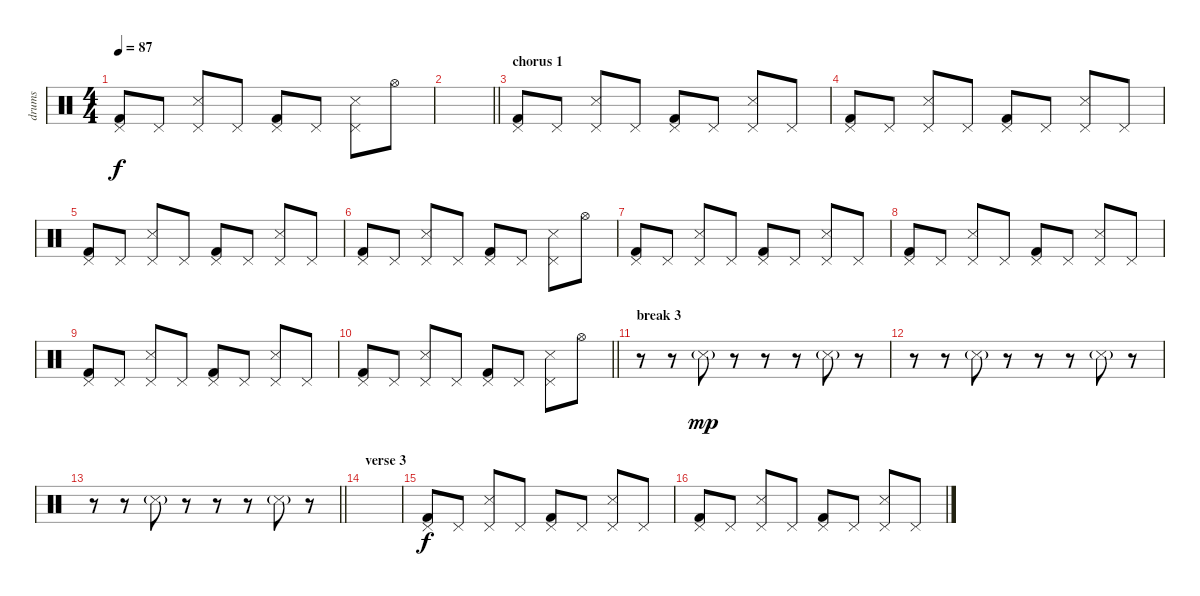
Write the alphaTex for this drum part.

\track ("drums" "drums") {instrument percussion}
\staff {score}
\articulation defaults
\ts (4 4)
\tempo 87
\clef neutral
\ks c
("Kick (hit) 2" "Pedal Hi-Hat (hit)").8{dy f} "Pedal Hi-Hat (hit)".8 ("Snare (side stick) 3" "Pedal Hi-Hat (hit)").8 "Pedal Hi-Hat (hit)".8 ("Kick (hit) 2" "Pedal Hi-Hat (hit)").8 "Pedal Hi-Hat (hit)".8 ("Snare (side stick) 3" "Pedal Hi-Hat (hit)").8 "Hi-Hat (open)".8 |
\barLineRight lightlight
|
\section ("" "chorus 1")
("Kick (hit) 2" "Pedal Hi-Hat (hit)").8 "Pedal Hi-Hat (hit)".8 ("Snare (side stick) 3" "Pedal Hi-Hat (hit)").8 "Pedal Hi-Hat (hit)".8 ("Kick (hit) 2" "Pedal Hi-Hat (hit)").8 "Pedal Hi-Hat (hit)".8 ("Snare (side stick) 3" "Pedal Hi-Hat (hit)").8 "Pedal Hi-Hat (hit)".8 |
("Kick (hit) 2" "Pedal Hi-Hat (hit)").8 "Pedal Hi-Hat (hit)".8 ("Snare (side stick) 3" "Pedal Hi-Hat (hit)").8 "Pedal Hi-Hat (hit)".8 ("Kick (hit) 2" "Pedal Hi-Hat (hit)").8 "Pedal Hi-Hat (hit)".8 ("Snare (side stick) 3" "Pedal Hi-Hat (hit)").8 "Pedal Hi-Hat (hit)".8 |
("Kick (hit) 2" "Pedal Hi-Hat (hit)").8 "Pedal Hi-Hat (hit)".8 ("Snare (side stick) 3" "Pedal Hi-Hat (hit)").8 "Pedal Hi-Hat (hit)".8 ("Kick (hit) 2" "Pedal Hi-Hat (hit)").8 "Pedal Hi-Hat (hit)".8 ("Snare (side stick) 3" "Pedal Hi-Hat (hit)").8 "Pedal Hi-Hat (hit)".8 |
("Kick (hit) 2" "Pedal Hi-Hat (hit)").8 "Pedal Hi-Hat (hit)".8 ("Snare (side stick) 3" "Pedal Hi-Hat (hit)").8 "Pedal Hi-Hat (hit)".8 ("Kick (hit) 2" "Pedal Hi-Hat (hit)").8 "Pedal Hi-Hat (hit)".8 ("Snare (side stick) 3" "Pedal Hi-Hat (hit)").8 "Hi-Hat (open)".8 |
("Kick (hit) 2" "Pedal Hi-Hat (hit)").8 "Pedal Hi-Hat (hit)".8 ("Snare (side stick) 3" "Pedal Hi-Hat (hit)").8 "Pedal Hi-Hat (hit)".8 ("Kick (hit) 2" "Pedal Hi-Hat (hit)").8 "Pedal Hi-Hat (hit)".8 ("Snare (side stick) 3" "Pedal Hi-Hat (hit)").8 "Pedal Hi-Hat (hit)".8 |
("Kick (hit) 2" "Pedal Hi-Hat (hit)").8 "Pedal Hi-Hat (hit)".8 ("Snare (side stick) 3" "Pedal Hi-Hat (hit)").8 "Pedal Hi-Hat (hit)".8 ("Kick (hit) 2" "Pedal Hi-Hat (hit)").8 "Pedal Hi-Hat (hit)".8 ("Snare (side stick) 3" "Pedal Hi-Hat (hit)").8 "Pedal Hi-Hat (hit)".8 |
("Kick (hit) 2" "Pedal Hi-Hat (hit)").8 "Pedal Hi-Hat (hit)".8 ("Snare (side stick) 3" "Pedal Hi-Hat (hit)").8 "Pedal Hi-Hat (hit)".8 ("Kick (hit) 2" "Pedal Hi-Hat (hit)").8 "Pedal Hi-Hat (hit)".8 ("Snare (side stick) 3" "Pedal Hi-Hat (hit)").8 "Pedal Hi-Hat (hit)".8 |
\barLineRight lightlight
("Kick (hit) 2" "Pedal Hi-Hat (hit)").8 "Pedal Hi-Hat (hit)".8 ("Snare (side stick) 3" "Pedal Hi-Hat (hit)").8 "Pedal Hi-Hat (hit)".8 ("Kick (hit) 2" "Pedal Hi-Hat (hit)").8 "Pedal Hi-Hat (hit)".8 ("Snare (side stick) 3" "Pedal Hi-Hat (hit)").8 "Hi-Hat (open)".8 |
\section ("" "break 3")
r.8{volume 6} r.8 "Snare (side stick) 3"{g}.8{dy mp} r.8 r.8 r.8 "Snare (side stick) 3"{g}.8 r.8 |
r.8 r.8 "Snare (side stick) 3"{g}.8 r.8 r.8 r.8 "Snare (side stick) 3"{g}.8 r.8 |
\barLineRight lightlight
r.8 r.8 "Snare (side stick) 3"{g}.8 r.8 r.8 r.8 "Snare (side stick) 3"{g}.8{volume 16} r.8 |
\section ("" "verse 3")
|
("Kick (hit) 2" "Pedal Hi-Hat (hit)").8{dy f} "Pedal Hi-Hat (hit)".8 ("Snare (side stick) 3" "Pedal Hi-Hat (hit)").8 "Pedal Hi-Hat (hit)".8 ("Kick (hit) 2" "Pedal Hi-Hat (hit)").8 "Pedal Hi-Hat (hit)".8 ("Snare (side stick) 3" "Pedal Hi-Hat (hit)").8 "Pedal Hi-Hat (hit)".8 |
("Kick (hit) 2" "Pedal Hi-Hat (hit)").8 "Pedal Hi-Hat (hit)".8 ("Snare (side stick) 3" "Pedal Hi-Hat (hit)").8 "Pedal Hi-Hat (hit)".8 ("Kick (hit) 2" "Pedal Hi-Hat (hit)").8 "Pedal Hi-Hat (hit)".8 ("Snare (side stick) 3" "Pedal Hi-Hat (hit)").8 "Pedal Hi-Hat (hit)".8
